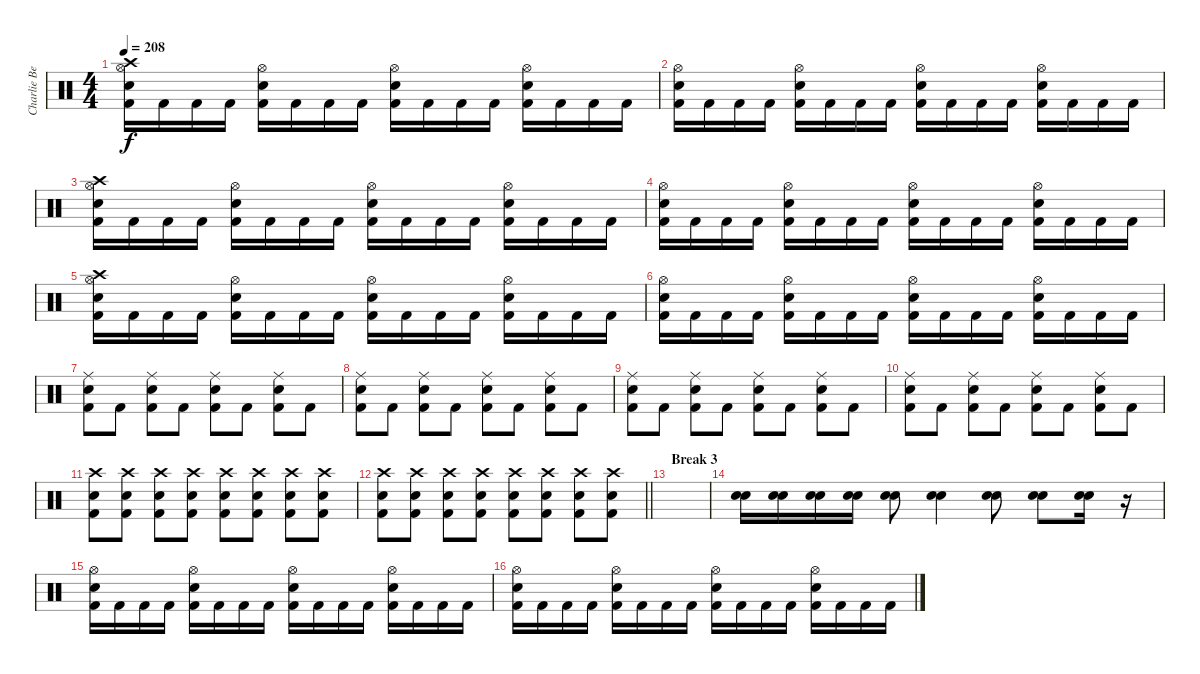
\track ("Charlie Benate" "Charlie Be") {instrument percussion}
\staff {score}
\articulation defaults
\ts (4 4)
\tempo 208
\clef neutral
\ks c
("Hi-Hat (open)" "Crash high (hit)" "Electric Snare (hit)" "Kick (hit) 2").16{dy f} "Kick (hit) 2".16 "Kick (hit) 2".16 "Kick (hit) 2".16 ("Hi-Hat (open)" "Electric Snare (hit)" "Kick (hit) 2").16 "Kick (hit) 2".16 "Kick (hit) 2".16 "Kick (hit) 2".16 ("Hi-Hat (open)" "Electric Snare (hit)" "Kick (hit) 2").16 "Kick (hit) 2".16 "Kick (hit) 2".16 "Kick (hit) 2".16 ("Hi-Hat (open)" "Electric Snare (hit)" "Kick (hit) 2").16 "Kick (hit) 2".16 "Kick (hit) 2".16 "Kick (hit) 2".16 |
("Hi-Hat (open)" "Electric Snare (hit)" "Kick (hit) 2").16 "Kick (hit) 2".16 "Kick (hit) 2".16 "Kick (hit) 2".16 ("Hi-Hat (open)" "Electric Snare (hit)" "Kick (hit) 2").16 "Kick (hit) 2".16 "Kick (hit) 2".16 "Kick (hit) 2".16 ("Hi-Hat (open)" "Electric Snare (hit)" "Kick (hit) 2").16 "Kick (hit) 2".16 "Kick (hit) 2".16 "Kick (hit) 2".16 ("Hi-Hat (open)" "Electric Snare (hit)" "Kick (hit) 2").16 "Kick (hit) 2".16 "Kick (hit) 2".16 "Kick (hit) 2".16 |
("Hi-Hat (open)" "Crash high (hit)" "Electric Snare (hit)" "Kick (hit) 2").16 "Kick (hit) 2".16 "Kick (hit) 2".16 "Kick (hit) 2".16 ("Hi-Hat (open)" "Electric Snare (hit)" "Kick (hit) 2").16 "Kick (hit) 2".16 "Kick (hit) 2".16 "Kick (hit) 2".16 ("Hi-Hat (open)" "Electric Snare (hit)" "Kick (hit) 2").16 "Kick (hit) 2".16 "Kick (hit) 2".16 "Kick (hit) 2".16 ("Hi-Hat (open)" "Electric Snare (hit)" "Kick (hit) 2").16 "Kick (hit) 2".16 "Kick (hit) 2".16 "Kick (hit) 2".16 |
("Hi-Hat (open)" "Electric Snare (hit)" "Kick (hit) 2").16 "Kick (hit) 2".16 "Kick (hit) 2".16 "Kick (hit) 2".16 ("Hi-Hat (open)" "Electric Snare (hit)" "Kick (hit) 2").16 "Kick (hit) 2".16 "Kick (hit) 2".16 "Kick (hit) 2".16 ("Hi-Hat (open)" "Electric Snare (hit)" "Kick (hit) 2").16 "Kick (hit) 2".16 "Kick (hit) 2".16 "Kick (hit) 2".16 ("Hi-Hat (open)" "Electric Snare (hit)" "Kick (hit) 2").16 "Kick (hit) 2".16 "Kick (hit) 2".16 "Kick (hit) 2".16 |
("Hi-Hat (open)" "Crash high (hit)" "Electric Snare (hit)" "Kick (hit) 2").16 "Kick (hit) 2".16 "Kick (hit) 2".16 "Kick (hit) 2".16 ("Hi-Hat (open)" "Electric Snare (hit)" "Kick (hit) 2").16 "Kick (hit) 2".16 "Kick (hit) 2".16 "Kick (hit) 2".16 ("Hi-Hat (open)" "Electric Snare (hit)" "Kick (hit) 2").16 "Kick (hit) 2".16 "Kick (hit) 2".16 "Kick (hit) 2".16 ("Hi-Hat (open)" "Electric Snare (hit)" "Kick (hit) 2").16 "Kick (hit) 2".16 "Kick (hit) 2".16 "Kick (hit) 2".16 |
("Hi-Hat (open)" "Electric Snare (hit)" "Kick (hit) 2").16 "Kick (hit) 2".16 "Kick (hit) 2".16 "Kick (hit) 2".16 ("Hi-Hat (open)" "Electric Snare (hit)" "Kick (hit) 2").16 "Kick (hit) 2".16 "Kick (hit) 2".16 "Kick (hit) 2".16 ("Hi-Hat (open)" "Electric Snare (hit)" "Kick (hit) 2").16 "Kick (hit) 2".16 "Kick (hit) 2".16 "Kick (hit) 2".16 ("Hi-Hat (open)" "Electric Snare (hit)" "Kick (hit) 2").16 "Kick (hit) 2".16 "Kick (hit) 2".16 "Kick (hit) 2".16 |
("Ride (middle)" "Electric Snare (hit)" "Kick (hit) 2").8 "Kick (hit) 2".8 ("Ride (middle)" "Electric Snare (hit)" "Kick (hit) 2").8 "Kick (hit) 2".8 ("Ride (middle)" "Electric Snare (hit)" "Kick (hit) 2").8 "Kick (hit) 2".8 ("Ride (middle)" "Electric Snare (hit)" "Kick (hit) 2").8 "Kick (hit) 2".8 |
("Ride (middle)" "Electric Snare (hit)" "Kick (hit) 2").8 "Kick (hit) 2".8 ("Ride (middle)" "Electric Snare (hit)" "Kick (hit) 2").8 "Kick (hit) 2".8 ("Ride (middle)" "Electric Snare (hit)" "Kick (hit) 2").8 "Kick (hit) 2".8 ("Ride (middle)" "Electric Snare (hit)" "Kick (hit) 2").8 "Kick (hit) 2".8 |
("Ride (middle)" "Electric Snare (hit)" "Kick (hit) 2").8 "Kick (hit) 2".8 ("Ride (middle)" "Electric Snare (hit)" "Kick (hit) 2").8 "Kick (hit) 2".8 ("Ride (middle)" "Electric Snare (hit)" "Kick (hit) 2").8 "Kick (hit) 2".8 ("Ride (middle)" "Electric Snare (hit)" "Kick (hit) 2").8 "Kick (hit) 2".8 |
("Ride (middle)" "Electric Snare (hit)" "Kick (hit) 2").8 "Kick (hit) 2".8 ("Ride (middle)" "Electric Snare (hit)" "Kick (hit) 2").8 "Kick (hit) 2".8 ("Ride (middle)" "Electric Snare (hit)" "Kick (hit) 2").8 "Kick (hit) 2".8 ("Ride (middle)" "Electric Snare (hit)" "Kick (hit) 2").8 "Kick (hit) 2".8 |
("Crash high (hit)" "Electric Snare (hit)" "Kick (hit) 2").8 ("Crash high (hit)" "Electric Snare (hit)" "Kick (hit) 2").8 ("Crash high (hit)" "Electric Snare (hit)" "Kick (hit) 2").8 ("Crash high (hit)" "Electric Snare (hit)" "Kick (hit) 2").8 ("Crash high (hit)" "Electric Snare (hit)" "Kick (hit) 2").8 ("Crash high (hit)" "Electric Snare (hit)" "Kick (hit) 2").8 ("Crash high (hit)" "Electric Snare (hit)" "Kick (hit) 2").8 ("Crash high (hit)" "Electric Snare (hit)" "Kick (hit) 2").8 |
\barLineRight lightlight
("Crash high (hit)" "Electric Snare (hit)" "Kick (hit) 2").8 ("Crash high (hit)" "Electric Snare (hit)" "Kick (hit) 2").8 ("Crash high (hit)" "Electric Snare (hit)" "Kick (hit) 2").8 ("Crash high (hit)" "Electric Snare (hit)" "Kick (hit) 2").8 ("Crash high (hit)" "Electric Snare (hit)" "Kick (hit) 2").8 ("Crash high (hit)" "Electric Snare (hit)" "Kick (hit) 2").8 ("Crash high (hit)" "Electric Snare (hit)" "Kick (hit) 2").8 ("Crash high (hit)" "Electric Snare (hit)" "Kick (hit) 2").8 |
\section ("" "Break 3")
|
("Electric Snare (hit)" "Electric Snare (hit)").16 ("Electric Snare (hit)" "Electric Snare (hit)").16 ("Electric Snare (hit)" "Electric Snare (hit)").16 ("Electric Snare (hit)" "Electric Snare (hit)").16 ("Electric Snare (hit)" "Electric Snare (hit)").8 ("Electric Snare (hit)" "Electric Snare (hit)").4 ("Electric Snare (hit)" "Electric Snare (hit)").8 ("Electric Snare (hit)" "Electric Snare (hit)").8 ("Electric Snare (hit)" "Electric Snare (hit)").16 r.16 |
("Hi-Hat (open)" "Electric Snare (hit)" "Kick (hit) 2").16 "Kick (hit) 2".16 "Kick (hit) 2".16 "Kick (hit) 2".16 ("Hi-Hat (open)" "Electric Snare (hit)" "Kick (hit) 2").16 "Kick (hit) 2".16 "Kick (hit) 2".16 "Kick (hit) 2".16 ("Hi-Hat (open)" "Electric Snare (hit)" "Kick (hit) 2").16 "Kick (hit) 2".16 "Kick (hit) 2".16 "Kick (hit) 2".16 ("Hi-Hat (open)" "Electric Snare (hit)" "Kick (hit) 2").16 "Kick (hit) 2".16 "Kick (hit) 2".16 "Kick (hit) 2".16 |
("Hi-Hat (open)" "Electric Snare (hit)" "Kick (hit) 2").16 "Kick (hit) 2".16 "Kick (hit) 2".16 "Kick (hit) 2".16 ("Hi-Hat (open)" "Electric Snare (hit)" "Kick (hit) 2").16 "Kick (hit) 2".16 "Kick (hit) 2".16 "Kick (hit) 2".16 ("Hi-Hat (open)" "Electric Snare (hit)" "Kick (hit) 2").16 "Kick (hit) 2".16 "Kick (hit) 2".16 "Kick (hit) 2".16 ("Hi-Hat (open)" "Electric Snare (hit)" "Kick (hit) 2").16 "Kick (hit) 2".16 "Kick (hit) 2".16 "Kick (hit) 2".16
